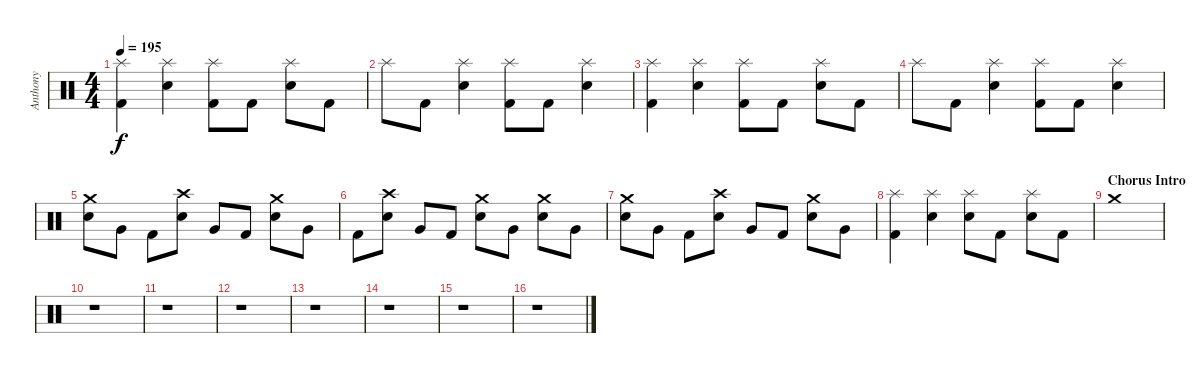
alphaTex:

\track ("Anthony" "Anthony") {instrument percussion}
\staff {score}
\articulation defaults
\ts (4 4)
\tempo 195
\clef neutral
\ks c
("Splash (hit)" "Kick (hit) 2").4{dy f} ("Splash (hit)" "Electric Snare (hit)").4 ("Splash (hit)" "Kick (hit) 2").8 "Kick (hit) 2".8 ("Splash (hit)" "Electric Snare (hit)").8 "Kick (hit) 2".8 |
"Splash (hit)".8 "Kick (hit) 2".8 ("Splash (hit)" "Electric Snare (hit)").4 ("Splash (hit)" "Kick (hit) 2").8 "Kick (hit) 2".8 ("Splash (hit)" "Electric Snare (hit)").4 |
("Splash (hit)" "Kick (hit) 2").4 ("Splash (hit)" "Electric Snare (hit)").4 ("Splash (hit)" "Kick (hit) 2").8 "Kick (hit) 2".8 ("Splash (hit)" "Electric Snare (hit)").8 "Kick (hit) 2".8 |
"Splash (hit)".8 "Kick (hit) 2".8 ("Splash (hit)" "Electric Snare (hit)").4 ("Splash (hit)" "Kick (hit) 2").8 "Kick (hit) 2".8 ("Splash (hit)" "Electric Snare (hit)").4 |
("Crash medium (hit)" "Electric Snare (hit)").8 "Very Low Tom (hit)".8 "Kick (hit) 2".8 ("Crash high (hit)" "Electric Snare (hit)").8 "Very Low Tom (hit)".8 "Kick (hit) 2".8 ("Crash medium (hit)" "Electric Snare (hit)").8 "Very Low Tom (hit)".8 |
"Kick (hit) 2".8 ("Crash high (hit)" "Electric Snare (hit)").8 "Very Low Tom (hit)".8 "Kick (hit) 2".8 ("Crash medium (hit)" "Electric Snare (hit)").8 "Very Low Tom (hit)".8 ("Crash medium (hit)" "Electric Snare (hit)").8 "Very Low Tom (hit)".8 |
("Crash medium (hit)" "Electric Snare (hit)").8 "Very Low Tom (hit)".8 "Kick (hit) 2".8 ("Crash high (hit)" "Electric Snare (hit)").8 "Very Low Tom (hit)".8 "Kick (hit) 2".8 ("Crash medium (hit)" "Electric Snare (hit)").8 "Very Low Tom (hit)".8 |
("Splash (hit)" "Kick (hit) 2").4 ("Splash (hit)" "Electric Snare (hit)").4 ("Splash (hit)" "Electric Snare (hit)").8 "Kick (hit) 2".8 ("Splash (hit)" "Electric Snare (hit)").8 "Kick (hit) 2".8 |
\section ("" "Chorus Intro")
"Crash medium (hit)".1 |
r.1 |
r.1 |
r.1 |
r.1 |
r.1 |
r.1 |
r.1
